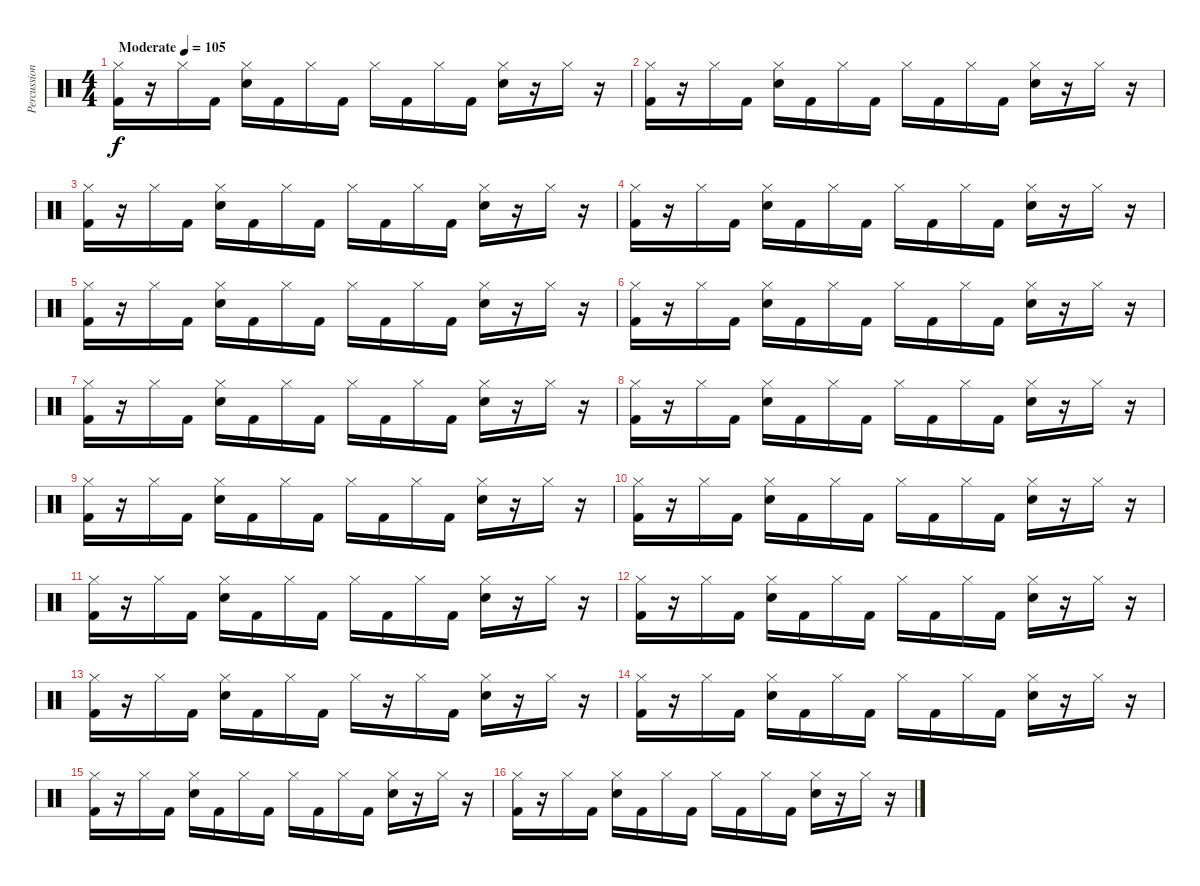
\track ("Percussion" "Percussion") {instrument percussion}
\staff {score}
\articulation defaults
\ts (4 4)
\tempo (105 "Moderate")
\clef neutral
\ks c
("Hi-Hat (closed)" "Kick (hit) 2").16{dy f} r.16 "Hi-Hat (closed)".16 "Kick (hit) 2".16 ("Hi-Hat (closed)" "Electric Snare (hit)").16 "Kick (hit) 2".16 "Hi-Hat (closed)".16 "Kick (hit) 2".16 "Hi-Hat (closed)".16 "Kick (hit) 2".16 "Hi-Hat (closed)".16 "Kick (hit) 2".16 ("Hi-Hat (closed)" "Electric Snare (hit)").16 r.16 "Hi-Hat (closed)".16 r.16 |
("Hi-Hat (closed)" "Kick (hit) 2").16 r.16 "Hi-Hat (closed)".16 "Kick (hit) 2".16 ("Hi-Hat (closed)" "Electric Snare (hit)").16 "Kick (hit) 2".16 "Hi-Hat (closed)".16 "Kick (hit) 2".16 "Hi-Hat (closed)".16 "Kick (hit) 2".16 "Hi-Hat (closed)".16 "Kick (hit) 2".16 ("Hi-Hat (closed)" "Electric Snare (hit)").16 r.16 "Hi-Hat (closed)".16 r.16 |
("Hi-Hat (closed)" "Kick (hit) 2").16 r.16 "Hi-Hat (closed)".16 "Kick (hit) 2".16 ("Hi-Hat (closed)" "Electric Snare (hit)").16 "Kick (hit) 2".16 "Hi-Hat (closed)".16 "Kick (hit) 2".16 "Hi-Hat (closed)".16 "Kick (hit) 2".16 "Hi-Hat (closed)".16 "Kick (hit) 2".16 ("Hi-Hat (closed)" "Electric Snare (hit)").16 r.16 "Hi-Hat (closed)".16 r.16 |
("Hi-Hat (closed)" "Kick (hit) 2").16 r.16 "Hi-Hat (closed)".16 "Kick (hit) 2".16 ("Hi-Hat (closed)" "Electric Snare (hit)").16 "Kick (hit) 2".16 "Hi-Hat (closed)".16 "Kick (hit) 2".16 "Hi-Hat (closed)".16 "Kick (hit) 2".16 "Hi-Hat (closed)".16 "Kick (hit) 2".16 ("Hi-Hat (closed)" "Electric Snare (hit)").16 r.16 "Hi-Hat (closed)".16 r.16 |
("Hi-Hat (closed)" "Kick (hit) 2").16 r.16 "Hi-Hat (closed)".16 "Kick (hit) 2".16 ("Hi-Hat (closed)" "Electric Snare (hit)").16 "Kick (hit) 2".16 "Hi-Hat (closed)".16 "Kick (hit) 2".16 "Hi-Hat (closed)".16 "Kick (hit) 2".16 "Hi-Hat (closed)".16 "Kick (hit) 2".16 ("Hi-Hat (closed)" "Electric Snare (hit)").16 r.16 "Hi-Hat (closed)".16 r.16 |
("Hi-Hat (closed)" "Kick (hit) 2").16 r.16 "Hi-Hat (closed)".16 "Kick (hit) 2".16 ("Hi-Hat (closed)" "Electric Snare (hit)").16 "Kick (hit) 2".16 "Hi-Hat (closed)".16 "Kick (hit) 2".16 "Hi-Hat (closed)".16 "Kick (hit) 2".16 "Hi-Hat (closed)".16 "Kick (hit) 2".16 ("Hi-Hat (closed)" "Electric Snare (hit)").16 r.16 "Hi-Hat (closed)".16 r.16 |
("Hi-Hat (closed)" "Kick (hit) 2").16 r.16 "Hi-Hat (closed)".16 "Kick (hit) 2".16 ("Hi-Hat (closed)" "Electric Snare (hit)").16 "Kick (hit) 2".16 "Hi-Hat (closed)".16 "Kick (hit) 2".16 "Hi-Hat (closed)".16 "Kick (hit) 2".16 "Hi-Hat (closed)".16 "Kick (hit) 2".16 ("Hi-Hat (closed)" "Electric Snare (hit)").16 r.16 "Hi-Hat (closed)".16 r.16 |
("Hi-Hat (closed)" "Kick (hit) 2").16 r.16 "Hi-Hat (closed)".16 "Kick (hit) 2".16 ("Hi-Hat (closed)" "Electric Snare (hit)").16 "Kick (hit) 2".16 "Hi-Hat (closed)".16 "Kick (hit) 2".16 "Hi-Hat (closed)".16 "Kick (hit) 2".16 "Hi-Hat (closed)".16 "Kick (hit) 2".16 ("Hi-Hat (closed)" "Electric Snare (hit)").16 r.16 "Hi-Hat (closed)".16 r.16 |
("Hi-Hat (closed)" "Kick (hit) 2").16 r.16 "Hi-Hat (closed)".16 "Kick (hit) 2".16 ("Hi-Hat (closed)" "Electric Snare (hit)").16 "Kick (hit) 2".16 "Hi-Hat (closed)".16 "Kick (hit) 2".16 "Hi-Hat (closed)".16 "Kick (hit) 2".16 "Hi-Hat (closed)".16 "Kick (hit) 2".16 ("Hi-Hat (closed)" "Electric Snare (hit)").16 r.16 "Hi-Hat (closed)".16 r.16 |
("Hi-Hat (closed)" "Kick (hit) 2").16 r.16 "Hi-Hat (closed)".16 "Kick (hit) 2".16 ("Hi-Hat (closed)" "Electric Snare (hit)").16 "Kick (hit) 2".16 "Hi-Hat (closed)".16 "Kick (hit) 2".16 "Hi-Hat (closed)".16 "Kick (hit) 2".16 "Hi-Hat (closed)".16 "Kick (hit) 2".16 ("Hi-Hat (closed)" "Electric Snare (hit)").16 r.16 "Hi-Hat (closed)".16 r.16 |
("Hi-Hat (closed)" "Kick (hit) 2").16 r.16 "Hi-Hat (closed)".16 "Kick (hit) 2".16 ("Hi-Hat (closed)" "Electric Snare (hit)").16 "Kick (hit) 2".16 "Hi-Hat (closed)".16 "Kick (hit) 2".16 "Hi-Hat (closed)".16 "Kick (hit) 2".16 "Hi-Hat (closed)".16 "Kick (hit) 2".16 ("Hi-Hat (closed)" "Electric Snare (hit)").16 r.16 "Hi-Hat (closed)".16 r.16 |
("Hi-Hat (closed)" "Kick (hit) 2").16 r.16 "Hi-Hat (closed)".16 "Kick (hit) 2".16 ("Hi-Hat (closed)" "Electric Snare (hit)").16 "Kick (hit) 2".16 "Hi-Hat (closed)".16 "Kick (hit) 2".16 "Hi-Hat (closed)".16 "Kick (hit) 2".16 "Hi-Hat (closed)".16 "Kick (hit) 2".16 ("Hi-Hat (closed)" "Electric Snare (hit)").16 r.16 "Hi-Hat (closed)".16 r.16 |
("Hi-Hat (closed)" "Kick (hit) 2").16 r.16 "Hi-Hat (closed)".16 "Kick (hit) 2".16 ("Hi-Hat (closed)" "Electric Snare (hit)").16 "Kick (hit) 2".16 "Hi-Hat (closed)".16 "Kick (hit) 2".16 "Hi-Hat (closed)".16 r.16 "Hi-Hat (closed)".16 "Kick (hit) 2".16 ("Hi-Hat (closed)" "Electric Snare (hit)").16 r.16 "Hi-Hat (closed)".16 r.16 |
("Hi-Hat (closed)" "Kick (hit) 2").16 r.16 "Hi-Hat (closed)".16 "Kick (hit) 2".16 ("Hi-Hat (closed)" "Electric Snare (hit)").16 "Kick (hit) 2".16 "Hi-Hat (closed)".16 "Kick (hit) 2".16 "Hi-Hat (closed)".16 "Kick (hit) 2".16 "Hi-Hat (closed)".16 "Kick (hit) 2".16 ("Hi-Hat (closed)" "Electric Snare (hit)").16 r.16 "Hi-Hat (closed)".16 r.16 |
("Hi-Hat (closed)" "Kick (hit) 2").16 r.16 "Hi-Hat (closed)".16 "Kick (hit) 2".16 ("Hi-Hat (closed)" "Electric Snare (hit)").16 "Kick (hit) 2".16 "Hi-Hat (closed)".16 "Kick (hit) 2".16 "Hi-Hat (closed)".16 "Kick (hit) 2".16 "Hi-Hat (closed)".16 "Kick (hit) 2".16 ("Hi-Hat (closed)" "Electric Snare (hit)").16 r.16 "Hi-Hat (closed)".16 r.16 |
("Hi-Hat (closed)" "Kick (hit) 2").16 r.16 "Hi-Hat (closed)".16 "Kick (hit) 2".16 ("Hi-Hat (closed)" "Electric Snare (hit)").16 "Kick (hit) 2".16 "Hi-Hat (closed)".16 "Kick (hit) 2".16 "Hi-Hat (closed)".16 "Kick (hit) 2".16 "Hi-Hat (closed)".16 "Kick (hit) 2".16 ("Hi-Hat (closed)" "Electric Snare (hit)").16 r.16 "Hi-Hat (closed)".16 r.16
